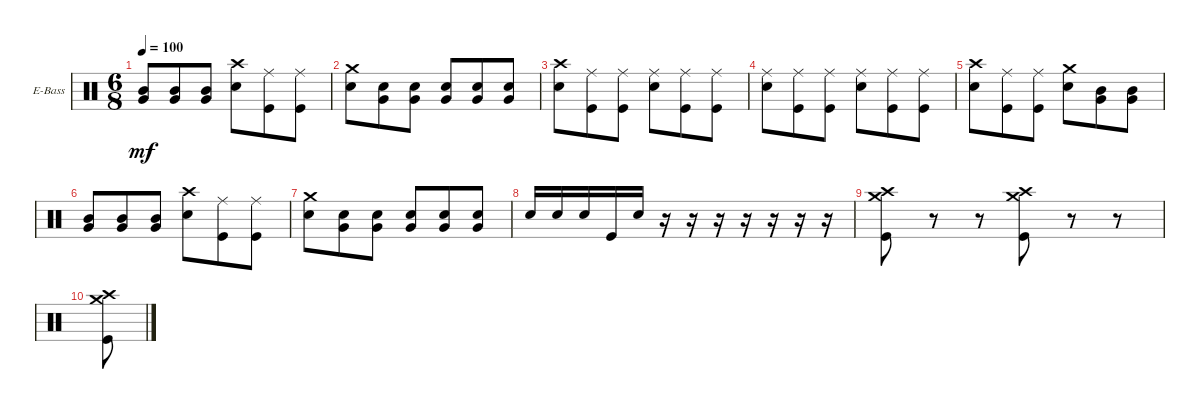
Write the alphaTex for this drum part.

\defaultSystemsLayout 4
\bracketExtendMode groupsimilarinstruments
\firstSystemTrackNameOrientation horizontal
\otherSystemsTrackNameOrientation horizontal
\track ("Drums" "E-Bass") {instrument percussion}
\staff {score}
\articulation defaults
\ts (6 8)
\tempo 100
\clef neutral
\ks c
("Very Low Tom (hit)" "Mid Tom (hit)").8{dy mf} ("Very Low Tom (hit)" "Mid Tom (hit)").8 ("Very Low Tom (hit)" "Mid Tom (hit)").8 ("Snare (hit) 2" "Crash high (hit)").8 ("Kick (hit)" "Ride (middle)").8 ("Kick (hit)" "Ride (middle)").8 |
("Snare (hit) 2" "Crash medium (hit)").8 ("Very Low Tom (hit)" "Snare (hit) 2").8 ("Very Low Tom (hit)" "Snare (hit) 2").8 ("Very Low Tom (hit)" "Snare (hit) 2").8 ("Very Low Tom (hit)" "Snare (hit) 2").8 ("Very Low Tom (hit)" "Snare (hit) 2").8 |
("Snare (hit) 2" "Crash high (hit)").8 ("Kick (hit)" "Ride (middle)").8 ("Kick (hit)" "Ride (middle)").8 ("Snare (hit) 2" "Ride (middle)").8 ("Kick (hit)" "Ride (middle)").8 ("Kick (hit)" "Ride (middle)").8 |
("Snare (hit) 2" "Ride (middle)").8 ("Kick (hit)" "Ride (middle)").8 ("Kick (hit)" "Ride (middle)").8 ("Snare (hit) 2" "Ride (middle)").8 ("Kick (hit)" "Ride (middle)").8 ("Kick (hit)" "Ride (middle)").8 |
("Snare (hit) 2" "Crash high (hit)").8 ("Kick (hit)" "Ride (middle)").8 ("Kick (hit)" "Ride (middle)").8 ("Snare (hit) 2" "Crash medium (hit)").8 ("Very Low Tom (hit)" "Mid Tom (hit)").8 ("Very Low Tom (hit)" "Mid Tom (hit)").8 |
("Very Low Tom (hit)" "Mid Tom (hit)").8 ("Very Low Tom (hit)" "Mid Tom (hit)").8 ("Very Low Tom (hit)" "Mid Tom (hit)").8 ("Snare (hit) 2" "Crash high (hit)").8 ("Kick (hit)" "Ride (middle)").8 ("Kick (hit)" "Ride (middle)").8 |
("Snare (hit) 2" "Crash medium (hit)").8 ("Very Low Tom (hit)" "Snare (hit) 2").8 ("Very Low Tom (hit)" "Snare (hit) 2").8 ("Very Low Tom (hit)" "Snare (hit) 2").8 ("Very Low Tom (hit)" "Snare (hit) 2").8 ("Very Low Tom (hit)" "Snare (hit) 2").8 |
"Snare (hit) 2".16 "Snare (hit) 2".16 "Snare (hit) 2".16 "Kick (hit)".16 "Snare (hit) 2".16 r.16 r.16 r.16 r.16 r.16 r.16 r.16 |
("Kick (hit)" "Crash medium (hit)" "Crash high (hit)").8 r.8 r.8 ("Kick (hit)" "Crash high (hit)" "Crash medium (hit)").8 r.8 r.8 |
("Kick (hit)" "Crash high (hit)" "Crash medium (hit)").8
